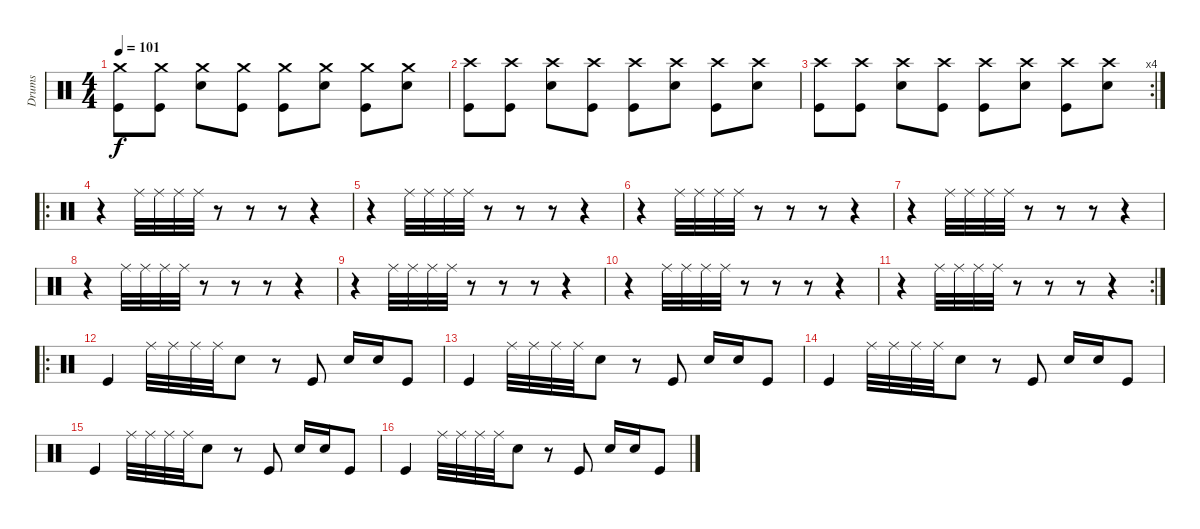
\track ("Drums" "Drums") {instrument percussion}
\staff {score}
\articulation defaults
\ts (4 4)
\tempo 101
\clef neutral
\ks c
("Crash medium (hit)" "Kick (hit)").8{dy f} ("Crash medium (hit)" "Kick (hit)").8 ("Crash medium (hit)" "Electric Snare (hit)").8 ("Crash medium (hit)" "Kick (hit)").8 ("Crash medium (hit)" "Kick (hit)").8 ("Crash medium (hit)" "Electric Snare (hit)").8 ("Crash medium (hit)" "Kick (hit)").8 ("Crash medium (hit)" "Electric Snare (hit)").8 |
("Crash high (hit)" "Kick (hit)").8 ("Crash high (hit)" "Kick (hit)").8 ("Crash high (hit)" "Electric Snare (hit)").8 ("Crash high (hit)" "Kick (hit)").8 ("Crash high (hit)" "Kick (hit)").8 ("Crash high (hit)" "Electric Snare (hit)").8 ("Crash high (hit)" "Kick (hit)").8 ("Crash high (hit)" "Electric Snare (hit)").8 |
\rc 4
("Crash high (hit)" "Kick (hit)").8 ("Crash high (hit)" "Kick (hit)").8 ("Crash high (hit)" "Electric Snare (hit)").8 ("Crash high (hit)" "Kick (hit)").8 ("Crash high (hit)" "Kick (hit)").8 ("Crash high (hit)" "Electric Snare (hit)").8 ("Crash high (hit)" "Kick (hit)").8 ("Crash high (hit)" "Electric Snare (hit)").8 |
\ro
r.4 "Ride (middle)".32 "Ride (middle)".32 "Ride (middle)".32 "Ride (middle)".32 r.8 r.8 r.8 r.4 |
r.4 "Ride (middle)".32 "Ride (middle)".32 "Ride (middle)".32 "Ride (middle)".32 r.8 r.8 r.8 r.4 |
r.4 "Ride (middle)".32 "Ride (middle)".32 "Ride (middle)".32 "Ride (middle)".32 r.8 r.8 r.8 r.4 |
r.4 "Ride (middle)".32 "Ride (middle)".32 "Ride (middle)".32 "Ride (middle)".32 r.8 r.8 r.8 r.4 |
r.4 "Ride (middle)".32 "Ride (middle)".32 "Ride (middle)".32 "Ride (middle)".32 r.8 r.8 r.8 r.4 |
r.4 "Ride (middle)".32 "Ride (middle)".32 "Ride (middle)".32 "Ride (middle)".32 r.8 r.8 r.8 r.4 |
r.4 "Ride (middle)".32 "Ride (middle)".32 "Ride (middle)".32 "Ride (middle)".32 r.8 r.8 r.8 r.4 |
\rc 2
r.4 "Ride (middle)".32 "Ride (middle)".32 "Ride (middle)".32 "Ride (middle)".32 r.8 r.8 r.8 r.4 |
\ro "Kick (hit)".4 "Ride (middle)".32 "Ride (middle)".32 "Ride (middle)".32 "Ride (middle)".32 "Electric Snare (hit)".8
r.8 "Kick (hit)".8 "Electric Snare (hit)".16 "Electric Snare (hit)".16 "Kick (hit)".8 |
"Kick (hit)".4 "Ride (middle)".32 "Ride (middle)".32 "Ride (middle)".32 "Ride (middle)".32 "Electric Snare (hit)".8 r.8 "Kick (hit)".8 "Electric Snare (hit)".16 "Electric Snare (hit)".16 "Kick (hit)".8 |
"Kick (hit)".4 "Ride (middle)".32 "Ride (middle)".32 "Ride (middle)".32 "Ride (middle)".32 "Electric Snare (hit)".8 r.8 "Kick (hit)".8 "Electric Snare (hit)".16 "Electric Snare (hit)".16 "Kick (hit)".8 |
"Kick (hit)".4 "Ride (middle)".32 "Ride (middle)".32 "Ride (middle)".32 "Ride (middle)".32 "Electric Snare (hit)".8 r.8 "Kick (hit)".8 "Electric Snare (hit)".16 "Electric Snare (hit)".16 "Kick (hit)".8 |
"Kick (hit)".4 "Ride (middle)".32 "Ride (middle)".32 "Ride (middle)".32 "Ride (middle)".32 "Electric Snare (hit)".8 r.8 "Kick (hit)".8 "Electric Snare (hit)".16 "Electric Snare (hit)".16 "Kick (hit)".8
